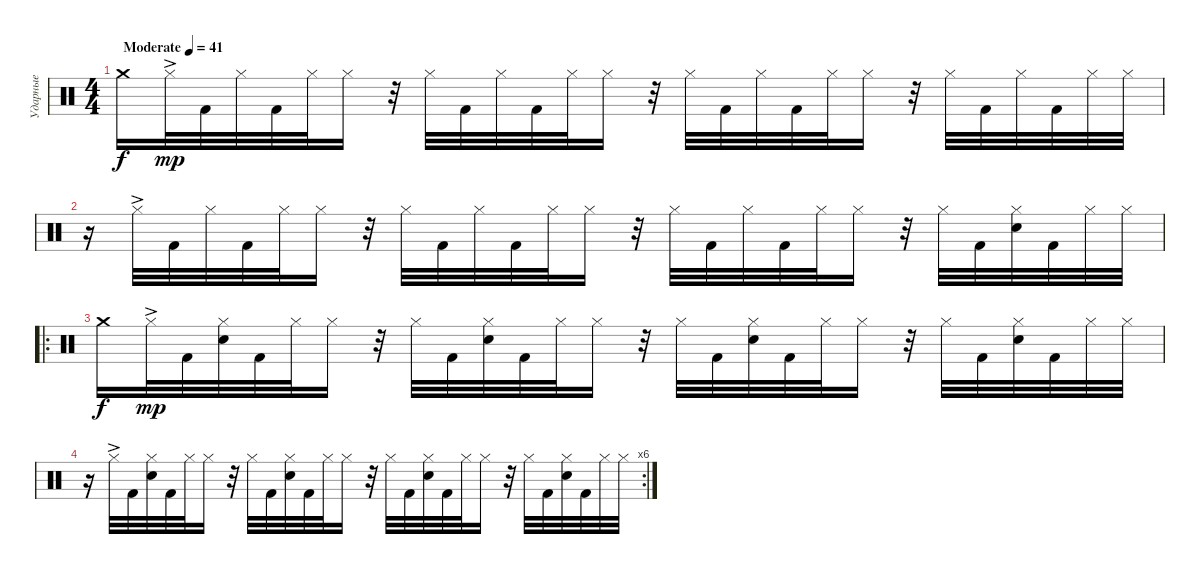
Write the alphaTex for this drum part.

\track ("Ударные" "Ударные") {instrument percussion}
\staff {score}
\articulation defaults
\ts (4 4)
\tempo (41 "Moderate")
\clef neutral
\ks c "Crash medium (hit)".16{dy f} "Hi-Hat (closed)"{ac}.32{dy mp} "Kick (hit) 2".32 "Hi-Hat (closed)".32 "Kick (hit) 2".32 "Hi-Hat (closed)".32 "Hi-Hat (closed)".16
r.32 "Hi-Hat (closed)".32 "Kick (hit) 2".32 "Hi-Hat (closed)".32 "Kick (hit) 2".32 "Hi-Hat (closed)".32 "Hi-Hat (closed)".16 r.32 "Hi-Hat (closed)".32 "Kick (hit) 2".32 "Hi-Hat (closed)".32 "Kick (hit) 2".32 "Hi-Hat (closed)".32 "Hi-Hat (closed)".16 r.32 "Hi-Hat (closed)".32 "Kick (hit) 2".32 "Hi-Hat (closed)".32 "Kick (hit) 2".32 "Hi-Hat (closed)".32 "Hi-Hat (closed)".32 |
r.16 "Hi-Hat (closed)"{ac}.32 "Kick (hit) 2".32 "Hi-Hat (closed)".32 "Kick (hit) 2".32 "Hi-Hat (closed)".32 "Hi-Hat (closed)".16 r.32 "Hi-Hat (closed)".32 "Kick (hit) 2".32 "Hi-Hat (closed)".32 "Kick (hit) 2".32 "Hi-Hat (closed)".32 "Hi-Hat (closed)".16 r.32 "Hi-Hat (closed)".32 "Kick (hit) 2".32 "Hi-Hat (closed)".32 "Kick (hit) 2".32 "Hi-Hat (closed)".32 "Hi-Hat (closed)".16 r.32 "Hi-Hat (closed)".32 "Kick (hit) 2".32 ("Hi-Hat (closed)" "Hand Clap (hit)").32 "Kick (hit) 2".32 "Hi-Hat (closed)".32 "Hi-Hat (closed)".32 |
\ro "Crash medium (hit)".16{dy f} "Hi-Hat (closed)"{ac}.32{dy mp} "Kick (hit) 2".32
("Hi-Hat (closed)" "Hand Clap (hit)").32 "Kick (hit) 2".32 "Hi-Hat (closed)".32 "Hi-Hat (closed)".16 r.32 "Hi-Hat (closed)".32 "Kick (hit) 2".32 ("Hi-Hat (closed)" "Hand Clap (hit)").32 "Kick (hit) 2".32 "Hi-Hat (closed)".32 "Hi-Hat (closed)".16 r.32 "Hi-Hat (closed)".32 "Kick (hit) 2".32 ("Hi-Hat (closed)" "Hand Clap (hit)").32 "Kick (hit) 2".32 "Hi-Hat (closed)".32 "Hi-Hat (closed)".16 r.32 "Hi-Hat (closed)".32 "Kick (hit) 2".32 ("Hi-Hat (closed)" "Hand Clap (hit)").32 "Kick (hit) 2".32 "Hi-Hat (closed)".32 "Hi-Hat (closed)".32 |
\rc 6
r.16 "Hi-Hat (closed)"{ac}.32 "Kick (hit) 2".32 ("Hi-Hat (closed)" "Hand Clap (hit)").32 "Kick (hit) 2".32 "Hi-Hat (closed)".32 "Hi-Hat (closed)".16 r.32 "Hi-Hat (closed)".32 "Kick (hit) 2".32 ("Hi-Hat (closed)" "Hand Clap (hit)").32 "Kick (hit) 2".32 "Hi-Hat (closed)".32 "Hi-Hat (closed)".16 r.32 "Hi-Hat (closed)".32 "Kick (hit) 2".32 ("Hi-Hat (closed)" "Hand Clap (hit)").32 "Kick (hit) 2".32 "Hi-Hat (closed)".32 "Hi-Hat (closed)".16 r.32 "Hi-Hat (closed)".32 "Kick (hit) 2".32 ("Hi-Hat (closed)" "Hand Clap (hit)").32 "Kick (hit) 2".32 "Hi-Hat (closed)".32 "Hi-Hat (closed)".32
